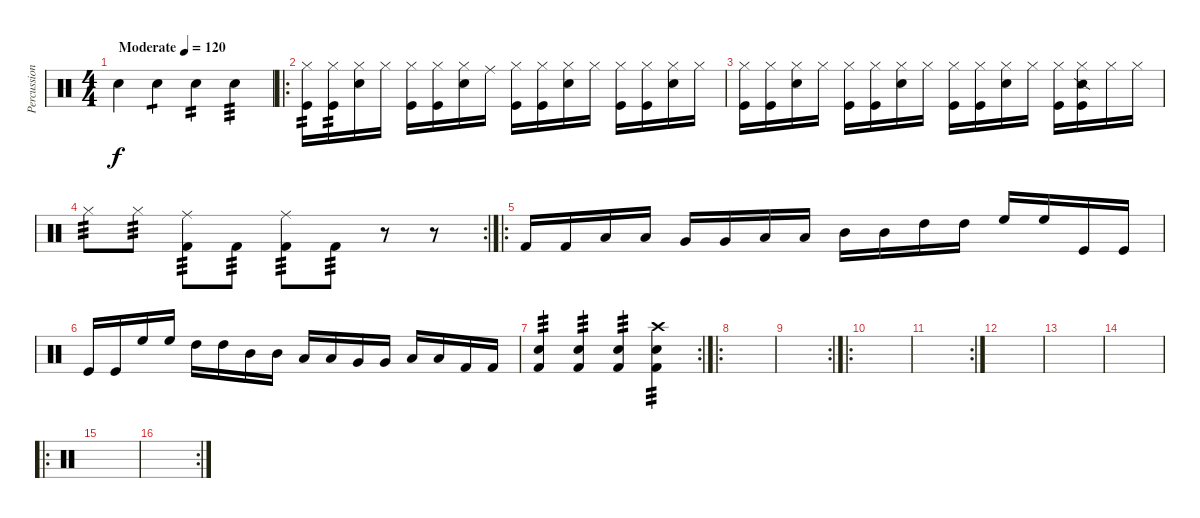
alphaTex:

\track ("Percussion" "Percussion") {instrument percussion}
\staff {score}
\articulation defaults
\ts (4 4)
\tempo (120 "Moderate")
\clef neutral
\ks c "Snare (hit) 2".4{dy f} "Snare (hit) 2".4{tp 1} "Snare (hit) 2".4{tp 2} "Snare (hit) 2".4{tp 3}
|
\ro
("Hi-Hat (closed)" "Kick (hit)").16{tp 2} ("Hi-Hat (closed)" "Kick (hit)").16{tp 2} ("Hi-Hat (closed)" "Snare (hit) 2").16 "Hi-Hat (closed)".16 ("Hi-Hat (closed)" "Kick (hit)").16 ("Hi-Hat (closed)" "Kick (hit)").16 ("Hi-Hat (closed)" "Snare (hit) 2").16 "Ride (middle)".16 ("Hi-Hat (closed)" "Kick (hit)").16 ("Hi-Hat (closed)" "Kick (hit)").16 ("Hi-Hat (closed)" "Snare (hit) 2").16 "Hi-Hat (closed)".16 ("Hi-Hat (closed)" "Kick (hit)").16 ("Hi-Hat (closed)" "Kick (hit)").16 ("Hi-Hat (closed)" "Snare (hit) 2").16 "Hi-Hat (closed)".16 |
("Hi-Hat (closed)" "Kick (hit)").16 ("Hi-Hat (closed)" "Kick (hit)").16 ("Hi-Hat (closed)" "Snare (hit) 2").16 "Hi-Hat (closed)".16 ("Hi-Hat (closed)" "Kick (hit)").16 ("Hi-Hat (closed)" "Kick (hit)").16 ("Hi-Hat (closed)" "Snare (hit) 2").16 "Hi-Hat (closed)".16 ("Hi-Hat (closed)" "Kick (hit)").16 ("Hi-Hat (closed)" "Kick (hit)").16 ("Hi-Hat (closed)" "Snare (hit) 2").16 "Hi-Hat (closed)".16 ("Hi-Hat (closed)" "Kick (hit)").16 ("Hi-Hat (closed)" "Snare (side stick) 2" "Kick (hit)").16 "Hi-Hat (closed)".16 "Hi-Hat (closed)".16 |
\rc 2 "Hi-Hat (closed)".8{tp 3} "Hi-Hat (closed)".8{tp 3}
("Kick (hit) 2" "Ride (middle)").8{tp 3} "Kick (hit) 2".8{tp 3} ("Kick (hit) 2" "Ride (middle)").8{tp 3} "Kick (hit) 2".8{tp 3} r.8 r.8 |
\ro "Kick (hit) 2".16 "Kick (hit) 2".16 "Low Floor Tom (hit)".16 "Low Floor Tom (hit)".16 "Very Low Tom (hit)".16 "Very Low Tom (hit)".16 "Low Tom (hit)".16 "Low Tom (hit)".16 "Mid Tom (hit)".16 "Mid Tom (hit)".16 "High Tom (hit)".16 "High Tom (hit)".16 "High Floor Tom (hit)".16 "High Floor Tom (hit)".16 "Kick (hit)".16 "Kick (hit)".16
|
"Kick (hit)".16 "Kick (hit)".16 "High Floor Tom (hit)".16 "High Floor Tom (hit)".16 "High Tom (hit)".16 "High Tom (hit)".16 "Mid Tom (hit)".16 "Mid Tom (hit)".16 "Low Tom (hit)".16 "Low Tom (hit)".16 "Very Low Tom (hit)".16 "Very Low Tom (hit)".16 "Low Floor Tom (hit)".16 "Low Floor Tom (hit)".16 "Kick (hit) 2".16 "Kick (hit) 2".16 |
\rc 2
("Snare (hit) 2" "Kick (hit) 2").4{tp 3} ("Snare (hit) 2" "Kick (hit) 2").4{tp 3} ("Snare (hit) 2" "Kick (hit) 2").4{tp 3} ("Crash high (hit)" "Snare (hit) 2" "Kick (hit) 2").4{tp 3} |
\ro
|
\rc 2
|
\ro
|
\rc 2
|
|
|
|
\ro
|
\rc 2
